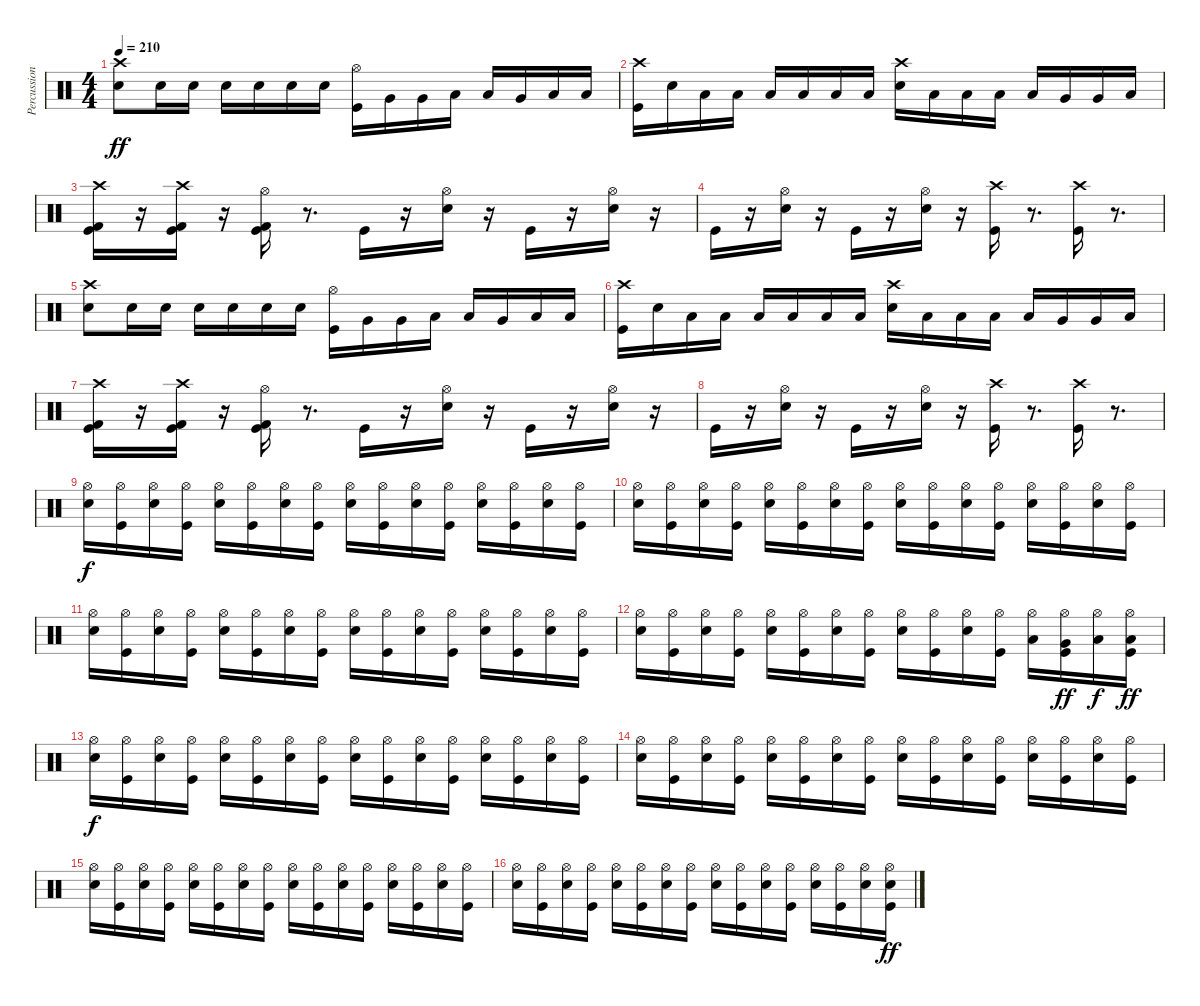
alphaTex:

\track ("Percussion" "Percussion") {instrument percussion}
\staff {score}
\articulation defaults
\ts (4 4)
\tempo 210
\clef neutral
\ks c
("Crash high (hit)" "Snare (hit) 2").8{dy ff} "Snare (hit) 2".16 "Snare (hit) 2".16 "Snare (hit) 2".16 "Snare (hit) 2".16 "Snare (hit) 2".16 "Snare (hit) 2".16 ("Hi-Hat (open)" "Kick (hit)").16 "Very Low Tom (hit)".16 "Very Low Tom (hit)".16 "Low Floor Tom (hit)".16 "Low Floor Tom (hit)".16 "Very Low Tom (hit)".16 "Low Floor Tom (hit)".16 "Low Floor Tom (hit)".16 |
("Crash high (hit)" "Kick (hit)").16 "Snare (hit) 2".16 "Low Floor Tom (hit)".16 "Low Floor Tom (hit)".16 "Low Floor Tom (hit)".16 "Low Floor Tom (hit)".16 "Low Floor Tom (hit)".16 "Low Floor Tom (hit)".16 ("Snare (hit) 2" "Crash high (hit)").16 "Low Floor Tom (hit)".16 "Low Floor Tom (hit)".16 "Low Floor Tom (hit)".16 "Low Floor Tom (hit)".16 "Very Low Tom (hit)".16 "Very Low Tom (hit)".16 "Low Floor Tom (hit)".16 |
("Crash high (hit)" "Kick (hit) 2" "Kick (hit)").16 r.16 ("Crash high (hit)" "Kick (hit) 2" "Kick (hit)").16 r.16 ("Kick (hit) 2" "Hi-Hat (open)" "Kick (hit)").16 r.8{d} "Kick (hit)".16 r.16 ("Hi-Hat (open)" "Snare (hit) 2").16 r.16 "Kick (hit)".16 r.16 ("Hi-Hat (open)" "Snare (hit) 2").16 r.16 |
"Kick (hit)".16 r.16 ("Hi-Hat (open)" "Snare (hit) 2").16 r.16 "Kick (hit)".16 r.16 ("Hi-Hat (open)" "Snare (hit) 2").16 r.16 ("Crash high (hit)" "Kick (hit)").16 r.8{d} ("Crash high (hit)" "Kick (hit)").16 r.8{d} |
("Crash high (hit)" "Snare (hit) 2").8 "Snare (hit) 2".16 "Snare (hit) 2".16 "Snare (hit) 2".16 "Snare (hit) 2".16 "Snare (hit) 2".16 "Snare (hit) 2".16 ("Hi-Hat (open)" "Kick (hit)").16 "Very Low Tom (hit)".16 "Very Low Tom (hit)".16 "Low Floor Tom (hit)".16 "Low Floor Tom (hit)".16 "Very Low Tom (hit)".16 "Low Floor Tom (hit)".16 "Low Floor Tom (hit)".16 |
("Crash high (hit)" "Kick (hit)").16 "Snare (hit) 2".16 "Low Floor Tom (hit)".16 "Low Floor Tom (hit)".16 "Low Floor Tom (hit)".16 "Low Floor Tom (hit)".16 "Low Floor Tom (hit)".16 "Low Floor Tom (hit)".16 ("Snare (hit) 2" "Crash high (hit)").16 "Low Floor Tom (hit)".16 "Low Floor Tom (hit)".16 "Low Floor Tom (hit)".16 "Low Floor Tom (hit)".16 "Very Low Tom (hit)".16 "Very Low Tom (hit)".16 "Low Floor Tom (hit)".16 |
("Crash high (hit)" "Kick (hit) 2" "Kick (hit)").16 r.16 ("Crash high (hit)" "Kick (hit) 2" "Kick (hit)").16 r.16 ("Kick (hit) 2" "Hi-Hat (open)" "Kick (hit)").16 r.8{d} "Kick (hit)".16 r.16 ("Hi-Hat (open)" "Snare (hit) 2").16 r.16 "Kick (hit)".16 r.16 ("Hi-Hat (open)" "Snare (hit) 2").16 r.16 |
"Kick (hit)".16 r.16 ("Hi-Hat (open)" "Snare (hit) 2").16 r.16 "Kick (hit)".16 r.16 ("Hi-Hat (open)" "Snare (hit) 2").16 r.16 ("Crash high (hit)" "Kick (hit)").16 r.8{d} ("Crash high (hit)" "Kick (hit)").16 r.8{d} |
("Hi-Hat (open)" "Snare (hit) 2").16{dy f} ("Hi-Hat (open)" "Kick (hit)").16 ("Hi-Hat (open)" "Snare (hit) 2").16 ("Hi-Hat (open)" "Kick (hit)").16 ("Hi-Hat (open)" "Snare (hit) 2").16 ("Hi-Hat (open)" "Kick (hit)").16 ("Hi-Hat (open)" "Snare (hit) 2").16 ("Hi-Hat (open)" "Kick (hit)").16 ("Hi-Hat (open)" "Snare (hit) 2").16 ("Hi-Hat (open)" "Kick (hit)").16 ("Hi-Hat (open)" "Snare (hit) 2").16 ("Hi-Hat (open)" "Kick (hit)").16 ("Hi-Hat (open)" "Snare (hit) 2").16 ("Hi-Hat (open)" "Kick (hit)").16 ("Hi-Hat (open)" "Snare (hit) 2").16 ("Hi-Hat (open)" "Kick (hit)").16 |
("Hi-Hat (open)" "Snare (hit) 2").16 ("Hi-Hat (open)" "Kick (hit)").16 ("Hi-Hat (open)" "Snare (hit) 2").16 ("Hi-Hat (open)" "Kick (hit)").16 ("Hi-Hat (open)" "Snare (hit) 2").16 ("Hi-Hat (open)" "Kick (hit)").16 ("Hi-Hat (open)" "Snare (hit) 2").16 ("Hi-Hat (open)" "Kick (hit)").16 ("Hi-Hat (open)" "Snare (hit) 2").16 ("Hi-Hat (open)" "Kick (hit)").16 ("Hi-Hat (open)" "Snare (hit) 2").16 ("Hi-Hat (open)" "Kick (hit)").16 ("Hi-Hat (open)" "Snare (hit) 2").16 ("Hi-Hat (open)" "Kick (hit)").16 ("Hi-Hat (open)" "Snare (hit) 2").16 ("Hi-Hat (open)" "Kick (hit)").16 |
("Hi-Hat (open)" "Snare (hit) 2").16 ("Hi-Hat (open)" "Kick (hit)").16 ("Hi-Hat (open)" "Snare (hit) 2").16 ("Hi-Hat (open)" "Kick (hit)").16 ("Hi-Hat (open)" "Snare (hit) 2").16 ("Hi-Hat (open)" "Kick (hit)").16 ("Hi-Hat (open)" "Snare (hit) 2").16 ("Hi-Hat (open)" "Kick (hit)").16 ("Hi-Hat (open)" "Snare (hit) 2").16 ("Hi-Hat (open)" "Kick (hit)").16 ("Hi-Hat (open)" "Snare (hit) 2").16 ("Hi-Hat (open)" "Kick (hit)").16 ("Hi-Hat (open)" "Snare (hit) 2").16 ("Hi-Hat (open)" "Kick (hit)").16 ("Hi-Hat (open)" "Snare (hit) 2").16 ("Hi-Hat (open)" "Kick (hit)").16 |
("Hi-Hat (open)" "Snare (hit) 2").16 ("Hi-Hat (open)" "Kick (hit)").16 ("Hi-Hat (open)" "Snare (hit) 2").16 ("Hi-Hat (open)" "Kick (hit)").16 ("Hi-Hat (open)" "Snare (hit) 2").16 ("Hi-Hat (open)" "Kick (hit)").16 ("Hi-Hat (open)" "Snare (hit) 2").16 ("Hi-Hat (open)" "Kick (hit)").16 ("Hi-Hat (open)" "Snare (hit) 2").16 ("Hi-Hat (open)" "Kick (hit)").16 ("Hi-Hat (open)" "Snare (hit) 2").16 ("Hi-Hat (open)" "Kick (hit)").16 ("Low Floor Tom (hit)" "Hi-Hat (open)").16 ("Very Low Tom (hit)" "Hi-Hat (open)" "Kick (hit)").16{dy ff} ("Low Floor Tom (hit)" "Hi-Hat (open)").16{dy f} ("Low Floor Tom (hit)" "Hi-Hat (open)" "Kick (hit)").16{dy ff} |
("Hi-Hat (open)" "Snare (hit) 2").16{dy f} ("Hi-Hat (open)" "Kick (hit)").16 ("Hi-Hat (open)" "Snare (hit) 2").16 ("Hi-Hat (open)" "Kick (hit)").16 ("Hi-Hat (open)" "Snare (hit) 2").16 ("Hi-Hat (open)" "Kick (hit)").16 ("Hi-Hat (open)" "Snare (hit) 2").16 ("Hi-Hat (open)" "Kick (hit)").16 ("Hi-Hat (open)" "Snare (hit) 2").16 ("Hi-Hat (open)" "Kick (hit)").16 ("Hi-Hat (open)" "Snare (hit) 2").16 ("Hi-Hat (open)" "Kick (hit)").16 ("Hi-Hat (open)" "Snare (hit) 2").16 ("Hi-Hat (open)" "Kick (hit)").16 ("Hi-Hat (open)" "Snare (hit) 2").16 ("Hi-Hat (open)" "Kick (hit)").16 |
("Hi-Hat (open)" "Snare (hit) 2").16 ("Hi-Hat (open)" "Kick (hit)").16 ("Hi-Hat (open)" "Snare (hit) 2").16 ("Hi-Hat (open)" "Kick (hit)").16 ("Hi-Hat (open)" "Snare (hit) 2").16 ("Hi-Hat (open)" "Kick (hit)").16 ("Hi-Hat (open)" "Snare (hit) 2").16 ("Hi-Hat (open)" "Kick (hit)").16 ("Hi-Hat (open)" "Snare (hit) 2").16 ("Hi-Hat (open)" "Kick (hit)").16 ("Hi-Hat (open)" "Snare (hit) 2").16 ("Hi-Hat (open)" "Kick (hit)").16 ("Hi-Hat (open)" "Snare (hit) 2").16 ("Hi-Hat (open)" "Kick (hit)").16 ("Hi-Hat (open)" "Snare (hit) 2").16 ("Hi-Hat (open)" "Kick (hit)").16 |
("Hi-Hat (open)" "Snare (hit) 2").16 ("Hi-Hat (open)" "Kick (hit)").16 ("Hi-Hat (open)" "Snare (hit) 2").16 ("Hi-Hat (open)" "Kick (hit)").16 ("Hi-Hat (open)" "Snare (hit) 2").16 ("Hi-Hat (open)" "Kick (hit)").16 ("Hi-Hat (open)" "Snare (hit) 2").16 ("Hi-Hat (open)" "Kick (hit)").16 ("Hi-Hat (open)" "Snare (hit) 2").16 ("Hi-Hat (open)" "Kick (hit)").16 ("Hi-Hat (open)" "Snare (hit) 2").16 ("Hi-Hat (open)" "Kick (hit)").16 ("Hi-Hat (open)" "Snare (hit) 2").16 ("Hi-Hat (open)" "Kick (hit)").16 ("Hi-Hat (open)" "Snare (hit) 2").16 ("Hi-Hat (open)" "Kick (hit)").16 |
("Hi-Hat (open)" "Snare (hit) 2").16 ("Hi-Hat (open)" "Kick (hit)").16 ("Hi-Hat (open)" "Snare (hit) 2").16 ("Hi-Hat (open)" "Kick (hit)").16 ("Hi-Hat (open)" "Snare (hit) 2").16 ("Hi-Hat (open)" "Kick (hit)").16 ("Hi-Hat (open)" "Snare (hit) 2").16 ("Hi-Hat (open)" "Kick (hit)").16 ("Hi-Hat (open)" "Snare (hit) 2").16 ("Hi-Hat (open)" "Kick (hit)").16 ("Hi-Hat (open)" "Snare (hit) 2").16 ("Hi-Hat (open)" "Kick (hit)").16 ("Hi-Hat (open)" "Snare (hit) 2").16 ("Hi-Hat (open)" "Kick (hit)").16 ("Hi-Hat (open)" "Snare (hit) 2").16 ("Snare (hit) 2" "Hi-Hat (open)" "Kick (hit)").16{dy ff}
